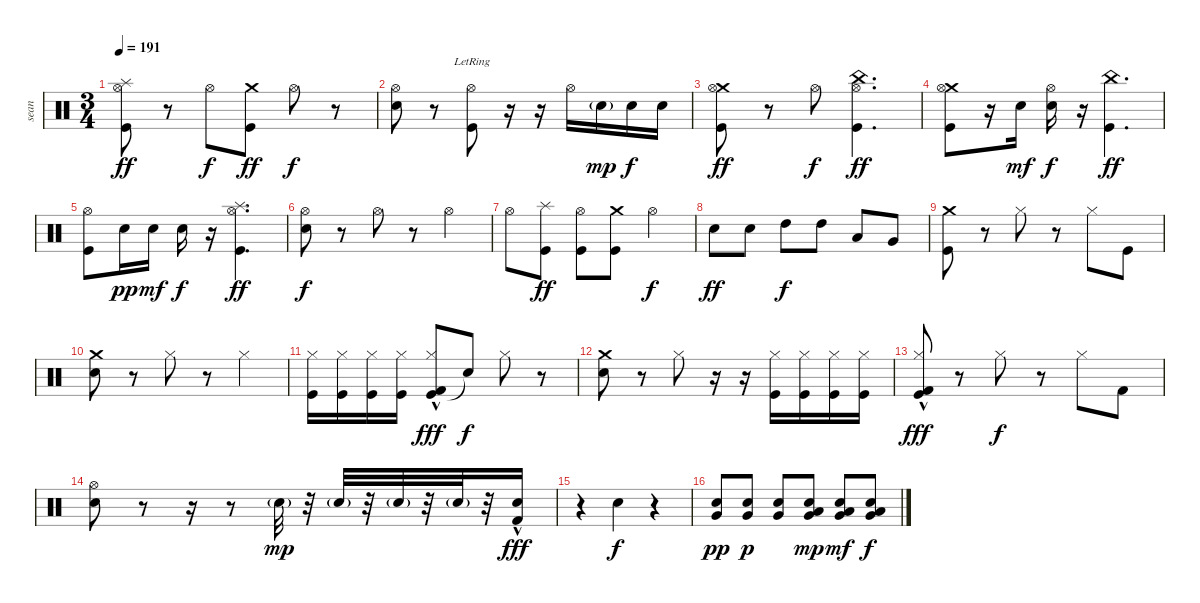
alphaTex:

\track ("sean" "sean") {instrument percussion}
\staff {score}
\articulation defaults
\ts (3 4)
\tempo 191
\clef neutral
\ks c
("Hi-Hat (open)" "Splash (hit)" "Kick (hit)").8{dy ff} r.8 "Hi-Hat (open)".8{dy f} ("Crash medium (hit)" "Kick (hit)").8{dy ff} "Hi-Hat (open)".8{dy f} r.8 |
("Hi-Hat (open)" "Electric Snare (hit)").8 r.8 ("Hi-Hat (open)" "Kick (hit)"{lr}).8 r.16 r.16 "Hi-Hat (open)".16 "Electric Snare (hit)"{g}.16{dy mp} "Electric Snare (hit)".16{dy f} "Electric Snare (hit)".16 |
("Crash medium (hit)" "Hi-Hat (open)" "Kick (hit)").8{dy ff} r.8 "Hi-Hat (open)".8{dy f} ("China (hit)" "Hi-Hat (open)" "Kick (hit)").4{d dy ff} |
("Crash medium (hit)" "Hi-Hat (open)" "Kick (hit)").8 r.16 "Electric Snare (hit)".16{dy mf} ("Hi-Hat (open)" "Electric Snare (hit)").16{dy f} r.16 ("China (hit)" "Kick (hit)").4{d dy ff} |
("Hi-Hat (open)" "Kick (hit)").8 "Electric Snare (hit)".16{dy pp} "Electric Snare (hit)".16{dy mf} "Electric Snare (hit)".16{dy f} r.16 ("Splash (hit)" "Hi-Hat (open)" "Kick (hit)").4{d dy ff} |
("Hi-Hat (open)" "Electric Snare (hit)").8{dy f} r.8 "Hi-Hat (open)".8 r.8 "Hi-Hat (open)".4 |
"Hi-Hat (open)".8 ("Splash (hit)" "Kick (hit)").8{dy ff} ("Hi-Hat (open)" "Kick (hit)").8 ("Crash medium (hit)" "Kick (hit)").8 "Hi-Hat (open)".4{dy f} |
"Electric Snare (hit)".8{dy ff} "Electric Snare (hit)".8 "High Tom (hit)".8{dy f} "High Tom (hit)".8 "Low Tom (hit)".8 "Very Low Tom (hit)".8 |
("Crash medium (hit)" "Kick (hit)").8 r.8 "Hi-Hat (closed)".8 r.8 "Hi-Hat (closed)".8 "Kick (hit)".8 |
("Crash medium (hit)" "Electric Snare (hit)").8 r.8 "Hi-Hat (closed)".8 r.8 "Hi-Hat (closed)".4 |
("Hi-Hat (closed)" "Kick (hit)").16 ("Hi-Hat (closed)" "Kick (hit)").16 ("Hi-Hat (closed)" "Kick (hit)").16 ("Hi-Hat (closed)" "Kick (hit)").16 ("Kick (hit)" "Hi-Hat (closed)"{hac} "Kick (hit) 2").8{dy fff} "Snare (hit)"{t}.8{dy f} "Hi-Hat (closed)".8 r.8 |
("Crash medium (hit)" "Electric Snare (hit)").8 r.8 "Hi-Hat (closed)".8 r.16 r.16 ("Hi-Hat (closed)" "Kick (hit)").16 ("Hi-Hat (closed)" "Kick (hit)").16 ("Hi-Hat (closed)" "Kick (hit)").16 ("Hi-Hat (closed)" "Kick (hit)").16 |
("Kick (hit)"{hac} "Hi-Hat (closed)" "Kick (hit) 2").8{dy fff} r.8 "Hi-Hat (closed)".8{dy f} r.8 "Hi-Hat (closed)".8 "Kick (hit) 2".8 |
("Hi-Hat (open)" "Electric Snare (hit)").8 r.8 r.16 r.8 "Electric Snare (hit)"{g}.32{dy mp} r.32 "Electric Snare (hit)"{g}.32 r.32 "Electric Snare (hit)"{g}.32 r.32 "Electric Snare (hit)"{g}.32 r.32 ("Kick (hit) 2" "Electric Snare (hit)"{hac}).16{dy fff} |
r.4 "Electric Snare (hit)".4{dy f} r.4 |
("Electric Snare (hit)" "Very Low Tom (hit)").8{dy pp} ("Electric Snare (hit)" "Very Low Tom (hit)").8{dy p} ("Electric Snare (hit)" "Very Low Tom (hit)").8 ("Electric Snare (hit)" "Low Tom (hit)" "Very Low Tom (hit)").8{dy mp} ("Electric Snare (hit)" "Very Low Tom (hit)" "Low Tom (hit)").8{dy mf} ("Electric Snare (hit)" "Very Low Tom (hit)" "Low Tom (hit)").8{dy f}
